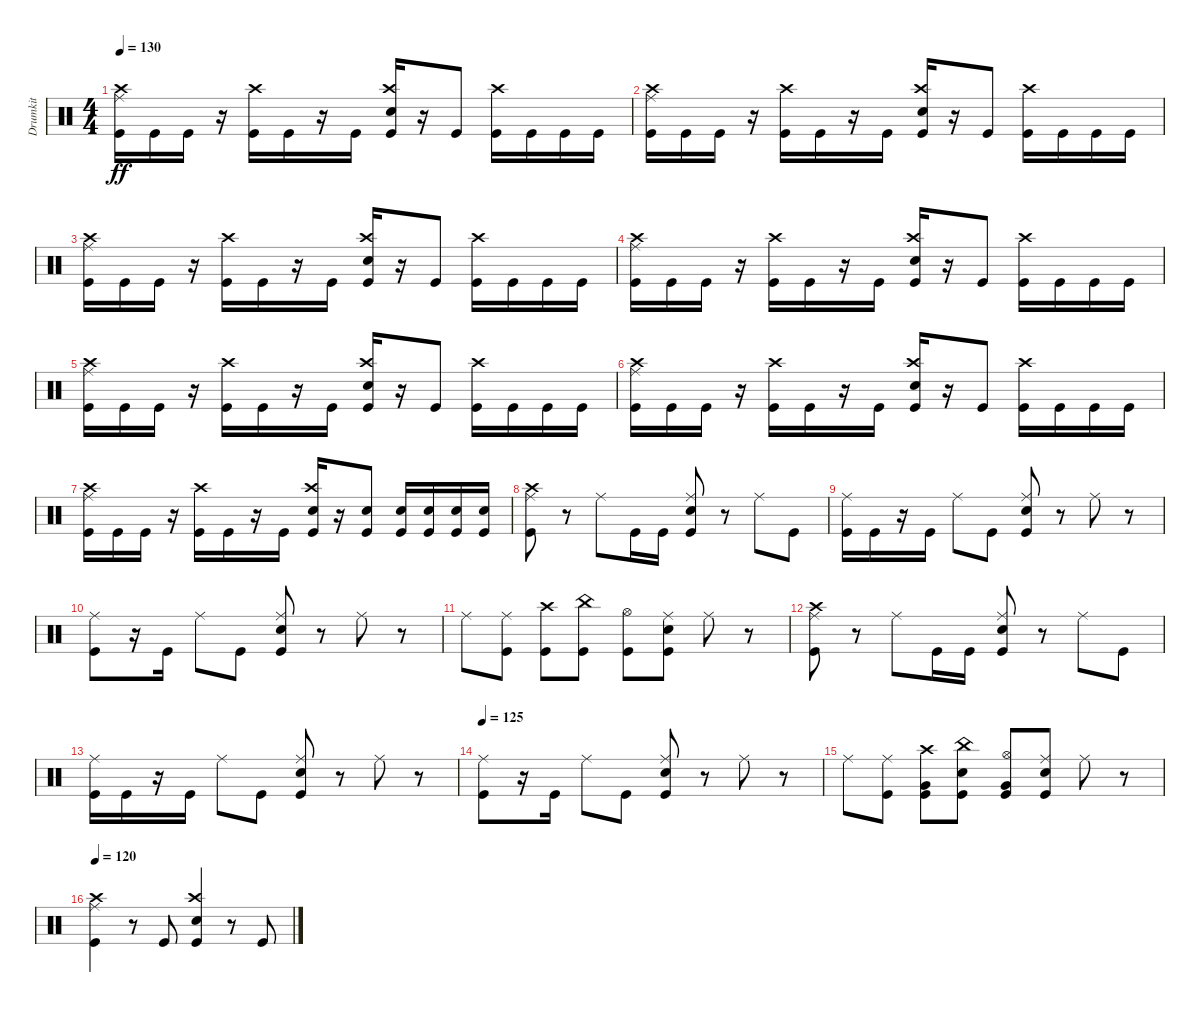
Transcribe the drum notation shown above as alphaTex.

\track ("Drumkit" "Drumkit") {instrument percussion}
\staff {score}
\articulation defaults
\ts (4 4)
\tempo 130
\clef neutral
\ks c
("Kick (hit)" "Crash high (hit)" "Ride (middle)").16{dy ff} "Kick (hit)".16 "Kick (hit)".16 r.16 ("Kick (hit)" "Crash high (hit)").16 "Kick (hit)".16 r.16 "Kick (hit)".16 ("Kick (hit)" "Crash high (hit)" "Snare (hit) 2").16 r.16 "Kick (hit)".8 ("Kick (hit)" "Crash high (hit)").16 "Kick (hit)".16 "Kick (hit)".16 "Kick (hit)".16 |
("Kick (hit)" "Crash high (hit)" "Ride (middle)").16 "Kick (hit)".16 "Kick (hit)".16 r.16 ("Kick (hit)" "Crash high (hit)").16 "Kick (hit)".16 r.16 "Kick (hit)".16 ("Kick (hit)" "Crash high (hit)" "Snare (hit) 2").16 r.16 "Kick (hit)".8 ("Kick (hit)" "Crash high (hit)").16 "Kick (hit)".16 "Kick (hit)".16 "Kick (hit)".16 |
("Kick (hit)" "Crash high (hit)" "Ride (middle)").16 "Kick (hit)".16 "Kick (hit)".16 r.16 ("Kick (hit)" "Crash high (hit)").16 "Kick (hit)".16 r.16 "Kick (hit)".16 ("Kick (hit)" "Crash high (hit)" "Snare (hit) 2").16 r.16 "Kick (hit)".8 ("Kick (hit)" "Crash high (hit)").16 "Kick (hit)".16 "Kick (hit)".16 "Kick (hit)".16 |
("Kick (hit)" "Crash high (hit)" "Ride (middle)").16 "Kick (hit)".16 "Kick (hit)".16 r.16 ("Kick (hit)" "Crash high (hit)").16 "Kick (hit)".16 r.16 "Kick (hit)".16 ("Kick (hit)" "Crash high (hit)" "Snare (hit) 2").16 r.16 "Kick (hit)".8 ("Kick (hit)" "Crash high (hit)").16 "Kick (hit)".16 "Kick (hit)".16 "Kick (hit)".16 |
("Kick (hit)" "Crash high (hit)" "Ride (middle)").16 "Kick (hit)".16 "Kick (hit)".16 r.16 ("Kick (hit)" "Crash high (hit)").16 "Kick (hit)".16 r.16 "Kick (hit)".16 ("Kick (hit)" "Crash high (hit)" "Snare (hit) 2").16 r.16 "Kick (hit)".8 ("Kick (hit)" "Crash high (hit)").16 "Kick (hit)".16 "Kick (hit)".16 "Kick (hit)".16 |
("Kick (hit)" "Crash high (hit)" "Ride (middle)").16 "Kick (hit)".16 "Kick (hit)".16 r.16 ("Kick (hit)" "Crash high (hit)").16 "Kick (hit)".16 r.16 "Kick (hit)".16 ("Kick (hit)" "Crash high (hit)" "Snare (hit) 2").16 r.16 "Kick (hit)".8 ("Kick (hit)" "Crash high (hit)").16 "Kick (hit)".16 "Kick (hit)".16 "Kick (hit)".16 |
("Kick (hit)" "Crash high (hit)" "Ride (middle)").16 "Kick (hit)".16 "Kick (hit)".16 r.16 ("Kick (hit)" "Crash high (hit)").16 "Kick (hit)".16 r.16 "Kick (hit)".16 ("Kick (hit)" "Crash high (hit)" "Snare (hit) 2").16 r.16 ("Kick (hit)" "Snare (hit) 2").8 ("Kick (hit)" "Snare (hit) 2").16 ("Kick (hit)" "Snare (hit) 2").16 ("Kick (hit)" "Snare (hit) 2").16 ("Kick (hit)" "Snare (hit) 2").16 |
("Ride (middle)" "Crash high (hit)" "Kick (hit)").8 r.8 "Ride (middle)".8 "Kick (hit)".16 "Kick (hit)".16 ("Kick (hit)" "Ride (middle)" "Snare (hit) 2").8 r.8 "Ride (middle)".8 "Kick (hit)".8 |
("Kick (hit)" "Ride (middle)").16 "Kick (hit)".16 r.16 "Kick (hit)".16 "Ride (middle)".8 "Kick (hit)".8 ("Kick (hit)" "Snare (hit) 2" "Ride (middle)").8 r.8 "Ride (middle)".8 r.8 |
("Kick (hit)" "Ride (middle)").8 r.16 "Kick (hit)".16 "Ride (middle)".8 "Kick (hit)".8 ("Kick (hit)" "Snare (hit) 2" "Ride (middle)").8 r.8 "Ride (middle)".8 r.8 |
"Ride (middle)".8 ("Kick (hit)" "Ride (middle)").8 ("Kick (hit)" "Crash high (hit)").8 ("Kick (hit)" "China (hit)").8 ("Kick (hit)" "Hi-Hat (open)").8 ("Kick (hit)" "Ride (middle)" "Snare (hit) 2").8 "Ride (middle)".8 r.8 |
("Ride (middle)" "Crash high (hit)" "Kick (hit)").8 r.8 "Ride (middle)".8 "Kick (hit)".16 "Kick (hit)".16 ("Kick (hit)" "Ride (middle)" "Snare (hit) 2").8 r.8 "Ride (middle)".8 "Kick (hit)".8 |
("Kick (hit)" "Ride (middle)").16 "Kick (hit)".16 r.16 "Kick (hit)".16 "Ride (middle)".8 "Kick (hit)".8 ("Kick (hit)" "Snare (hit) 2" "Ride (middle)").8 r.8 "Ride (middle)".8 r.8 |
\tempo 125
("Kick (hit)" "Ride (middle)").8 r.16 "Kick (hit)".16 "Ride (middle)".8 "Kick (hit)".8 ("Kick (hit)" "Snare (hit) 2" "Ride (middle)").8 r.8 "Ride (middle)".8 r.8 |
"Ride (middle)".8 ("Kick (hit)" "Ride (middle)").8 ("Kick (hit)" "Crash high (hit)" "Very Low Tom (hit)").8 ("Kick (hit)" "China (hit)" "Snare (hit) 2").8 ("Kick (hit)" "Hi-Hat (open)" "Very Low Tom (hit)").8 ("Kick (hit)" "Ride (middle)" "Snare (hit) 2").8 "Ride (middle)".8 r.8 |
\tempo 120
("Kick (hit)" "Ride (middle)" "Crash high (hit)").4 r.8 "Kick (hit)".8 ("Kick (hit)" "Snare (hit) 2" "Crash high (hit)").4 r.8 "Kick (hit)".8
